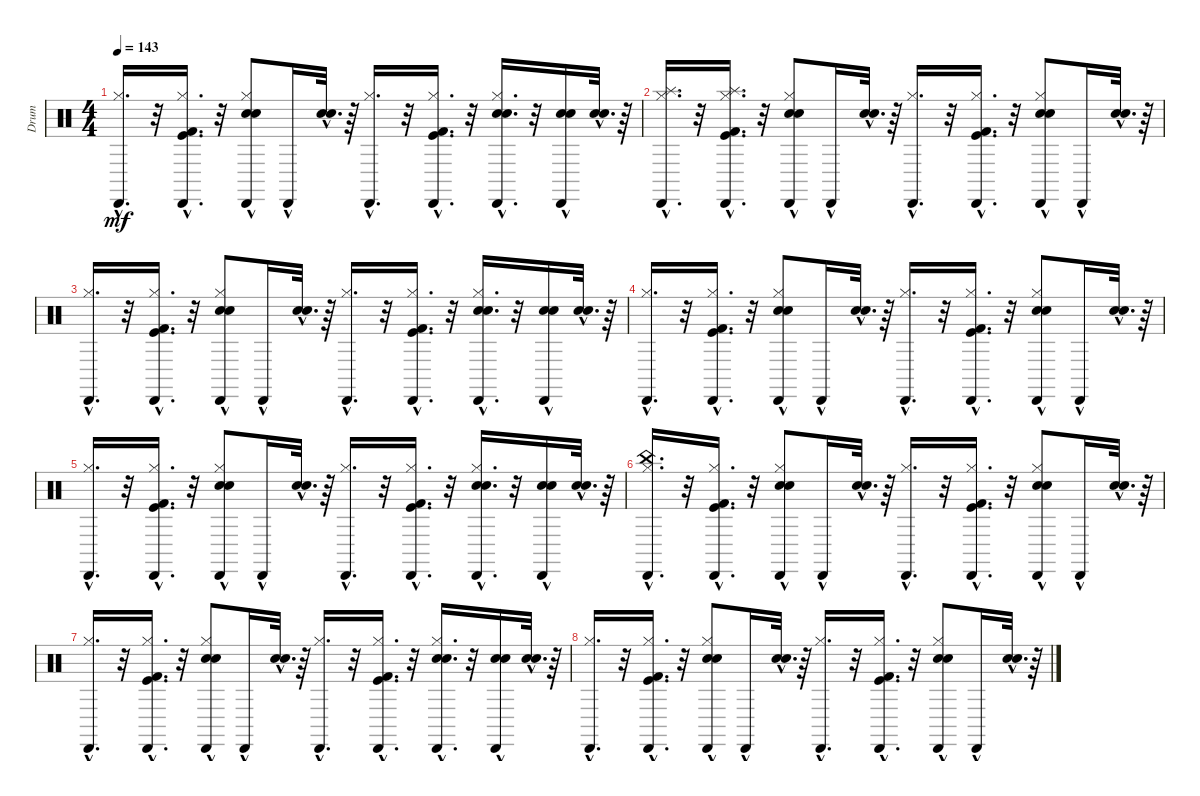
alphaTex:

\track ("Drum" "Drum") {instrument percussion}
\staff {score}
\articulation defaults
\ts (4 4)
\tempo 143
\clef neutral
\ks c
("Cabasa (hit)"{hac} "Hi-Hat (closed)"{hac}).16{d dy mf} r.32 ("Kick (hit) 2"{hac} "Cabasa (hit)"{hac} "Kick (hit)"{hac} "Hi-Hat (closed)"{hac}).16{d} r.32 ("Electric Snare (hit)" "Cabasa (hit)"{hac} "Snare (hit) 2" "Hi-Hat (closed)").8 "Cabasa (hit)"{hac}.16 ("Electric Snare (hit)"{hac} "Snare (hit) 2"{hac}).32{d} r.64 ("Cabasa (hit)"{hac} "Hi-Hat (closed)"{hac}).16{d} r.32 ("Kick (hit) 2"{hac} "Cabasa (hit)"{hac} "Kick (hit)"{hac} "Hi-Hat (closed)"{hac}).16{d} r.32 ("Electric Snare (hit)"{hac} "Cabasa (hit)"{hac} "Snare (hit) 2"{hac} "Hi-Hat (closed)"{hac}).16{d} r.32 ("Electric Snare (hit)"{hac} "Cabasa (hit)"{hac} "Snare (hit) 2"{hac}).16 ("Electric Snare (hit)"{hac} "Snare (hit) 2"{hac}).32{d} r.64 |
("Cabasa (hit)"{hac} "Hi-Hat (closed)"{hac} "Splash (hit)"{hac}).16{d} r.32 ("Kick (hit) 2"{hac} "Cabasa (hit)"{hac} "Kick (hit)"{hac} "Hi-Hat (closed)"{hac} "Splash (hit)"{hac}).16{d} r.32 ("Electric Snare (hit)" "Cabasa (hit)"{hac} "Snare (hit) 2" "Hi-Hat (closed)").8 "Cabasa (hit)"{hac}.16 ("Electric Snare (hit)"{hac} "Snare (hit) 2"{hac}).32{d} r.64 ("Cabasa (hit)"{hac} "Hi-Hat (closed)"{hac}).16{d} r.32 ("Kick (hit) 2"{hac} "Cabasa (hit)"{hac} "Kick (hit)"{hac} "Hi-Hat (closed)"{hac}).16{d} r.32 ("Electric Snare (hit)" "Cabasa (hit)"{hac} "Snare (hit) 2" "Hi-Hat (closed)").8 "Cabasa (hit)"{hac}.16 ("Electric Snare (hit)"{hac} "Snare (hit) 2"{hac}).32{d} r.64 |
("Cabasa (hit)"{hac} "Hi-Hat (closed)"{hac}).16{d} r.32 ("Kick (hit) 2"{hac} "Cabasa (hit)"{hac} "Hi-Hat (closed)"{hac} "Kick (hit)"{hac}).16{d} r.32 ("Electric Snare (hit)" "Cabasa (hit)"{hac} "Hi-Hat (closed)" "Snare (hit) 2").8 "Cabasa (hit)"{hac}.16 ("Electric Snare (hit)"{hac} "Snare (hit) 2"{hac}).32{d} r.64 ("Cabasa (hit)"{hac} "Hi-Hat (closed)"{hac}).16{d} r.32 ("Kick (hit) 2"{hac} "Cabasa (hit)"{hac} "Hi-Hat (closed)"{hac} "Kick (hit)"{hac}).16{d} r.32 ("Electric Snare (hit)"{hac} "Cabasa (hit)"{hac} "Hi-Hat (closed)"{hac} "Snare (hit) 2"{hac}).16{d} r.32 ("Electric Snare (hit)"{hac} "Cabasa (hit)"{hac} "Snare (hit) 2"{hac}).16 ("Electric Snare (hit)"{hac} "Snare (hit) 2"{hac}).32{d} r.64 |
("Cabasa (hit)"{hac} "Hi-Hat (closed)"{hac}).16{d} r.32 ("Kick (hit) 2"{hac} "Cabasa (hit)"{hac} "Kick (hit)"{hac} "Hi-Hat (closed)"{hac}).16{d} r.32 ("Electric Snare (hit)" "Cabasa (hit)"{hac} "Snare (hit) 2" "Hi-Hat (closed)").8 "Cabasa (hit)"{hac}.16 ("Electric Snare (hit)"{hac} "Snare (hit) 2"{hac}).32{d} r.64 ("Cabasa (hit)"{hac} "Hi-Hat (closed)"{hac}).16{d} r.32 ("Kick (hit) 2"{hac} "Cabasa (hit)"{hac} "Kick (hit)"{hac} "Hi-Hat (closed)"{hac}).16{d} r.32 ("Electric Snare (hit)" "Cabasa (hit)"{hac} "Snare (hit) 2" "Hi-Hat (closed)").8 "Cabasa (hit)"{hac}.16 ("Electric Snare (hit)"{hac} "Snare (hit) 2"{hac}).32{d} r.64 |
("Cabasa (hit)"{hac} "Hi-Hat (closed)"{hac}).16{d} r.32 ("Kick (hit) 2"{hac} "Cabasa (hit)"{hac} "Kick (hit)"{hac} "Hi-Hat (closed)"{hac}).16{d} r.32 ("Electric Snare (hit)" "Cabasa (hit)"{hac} "Snare (hit) 2" "Hi-Hat (closed)").8 "Cabasa (hit)"{hac}.16 ("Electric Snare (hit)"{hac} "Snare (hit) 2"{hac}).32{d} r.64 ("Cabasa (hit)"{hac} "Hi-Hat (closed)"{hac}).16{d} r.32 ("Kick (hit) 2"{hac} "Cabasa (hit)"{hac} "Kick (hit)"{hac} "Hi-Hat (closed)"{hac}).16{d} r.32 ("Electric Snare (hit)"{hac} "Cabasa (hit)"{hac} "Snare (hit) 2"{hac} "Hi-Hat (closed)"{hac}).16{d} r.32 ("Electric Snare (hit)"{hac} "Cabasa (hit)"{hac} "Snare (hit) 2"{hac}).16 ("Electric Snare (hit)"{hac} "Snare (hit) 2"{hac}).32{d} r.64 |
("Hi-Hat (closed)"{hac} "Cabasa (hit)"{hac} "China (hit)"{hac}).16{d} r.32 ("Hi-Hat (closed)"{hac} "Kick (hit)"{hac} "Cabasa (hit)"{hac} "Kick (hit) 2"{hac}).16{d} r.32 ("Hi-Hat (closed)" "Snare (hit) 2" "Cabasa (hit)"{hac} "Electric Snare (hit)").8 "Cabasa (hit)"{hac}.16 ("Snare (hit) 2"{hac} "Electric Snare (hit)"{hac}).32{d} r.64 ("Hi-Hat (closed)"{hac} "Cabasa (hit)"{hac}).16{d} r.32 ("Hi-Hat (closed)"{hac} "Kick (hit)"{hac} "Cabasa (hit)"{hac} "Kick (hit) 2"{hac}).16{d} r.32 ("Hi-Hat (closed)" "Snare (hit) 2" "Cabasa (hit)"{hac} "Electric Snare (hit)").8 "Cabasa (hit)"{hac}.16 ("Snare (hit) 2"{hac} "Electric Snare (hit)"{hac}).32{d} r.64 |
("Hi-Hat (closed)"{hac} "Cabasa (hit)"{hac}).16{d} r.32 ("Kick (hit)"{hac} "Hi-Hat (closed)"{hac} "Cabasa (hit)"{hac} "Kick (hit) 2"{hac}).16{d} r.32 ("Snare (hit) 2" "Hi-Hat (closed)" "Cabasa (hit)"{hac} "Electric Snare (hit)").8 "Cabasa (hit)"{hac}.16 ("Snare (hit) 2"{hac} "Electric Snare (hit)"{hac}).32{d} r.64 ("Hi-Hat (closed)"{hac} "Cabasa (hit)"{hac}).16{d} r.32 ("Kick (hit)"{hac} "Hi-Hat (closed)"{hac} "Cabasa (hit)"{hac} "Kick (hit) 2"{hac}).16{d} r.32 ("Snare (hit) 2"{hac} "Hi-Hat (closed)"{hac} "Cabasa (hit)"{hac} "Electric Snare (hit)"{hac}).16{d} r.32 ("Snare (hit) 2"{hac} "Cabasa (hit)"{hac} "Electric Snare (hit)"{hac}).16 ("Snare (hit) 2"{hac} "Electric Snare (hit)"{hac}).32{d} r.64 |
("Hi-Hat (closed)"{hac} "Cabasa (hit)"{hac}).16{d} r.32 ("Hi-Hat (closed)"{hac} "Kick (hit)"{hac} "Cabasa (hit)"{hac} "Kick (hit) 2"{hac}).16{d} r.32 ("Hi-Hat (closed)" "Snare (hit) 2" "Cabasa (hit)"{hac} "Electric Snare (hit)").8 "Cabasa (hit)"{hac}.16 ("Snare (hit) 2"{hac} "Electric Snare (hit)"{hac}).32{d} r.64 ("Hi-Hat (closed)"{hac} "Cabasa (hit)"{hac}).16{d} r.32 ("Hi-Hat (closed)"{hac} "Kick (hit)"{hac} "Cabasa (hit)"{hac} "Kick (hit) 2"{hac}).16{d} r.32 ("Hi-Hat (closed)" "Snare (hit) 2" "Cabasa (hit)"{hac} "Electric Snare (hit)").8 "Cabasa (hit)"{hac}.16 ("Snare (hit) 2"{hac} "Electric Snare (hit)"{hac}).32{d} r.64
